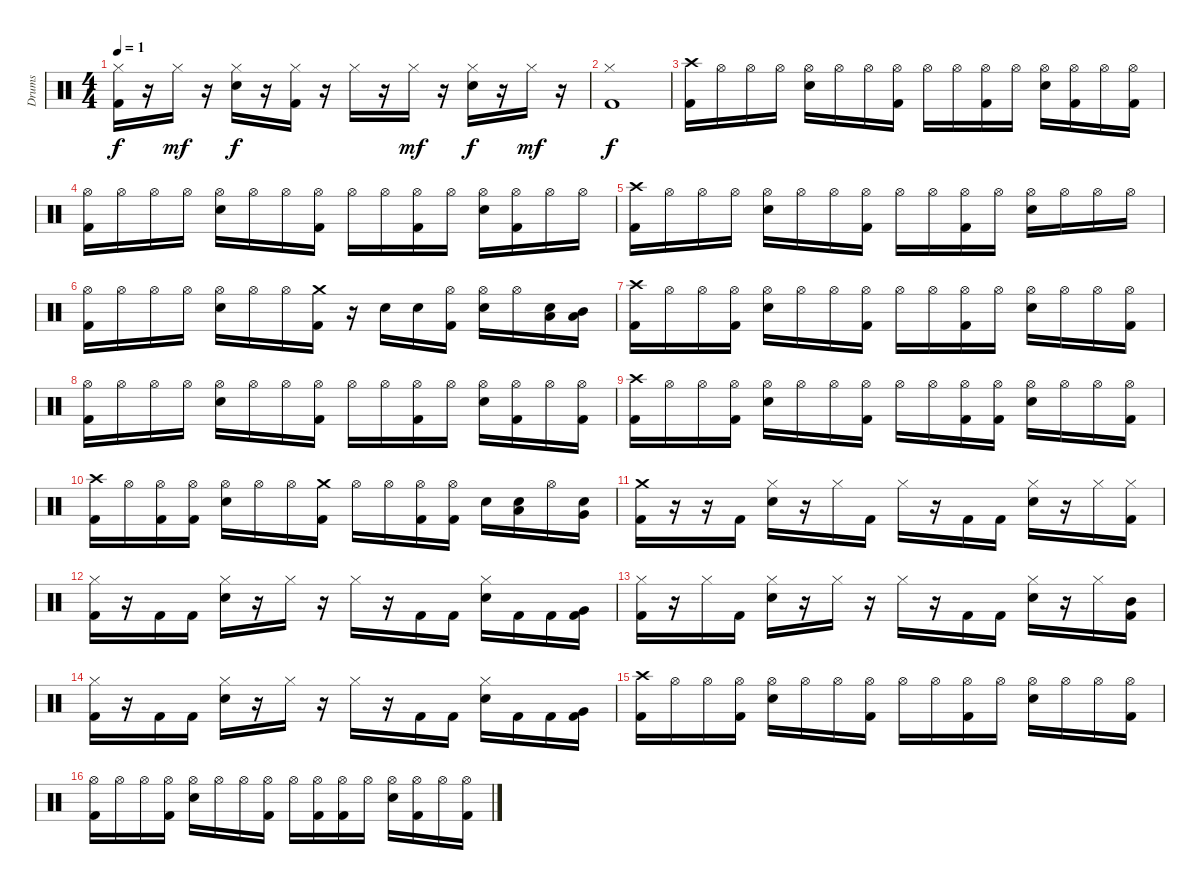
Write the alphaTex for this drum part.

\track ("Drums" "Drums") {instrument percussion}
\staff {score}
\articulation defaults
\ts (4 4)
\tempo 1
\clef neutral
\ks c
("Hi-Hat (closed)" "Kick (hit) 2").16{dy f} r.16 "Hi-Hat (closed)".16{dy mf} r.16 ("Hi-Hat (closed)" "Snare (hit) 2").16{dy f} r.16 ("Kick (hit) 2" "Hi-Hat (closed)").16 r.16 "Hi-Hat (closed)".16 r.16 "Hi-Hat (closed)".16{dy mf} r.16 ("Hi-Hat (closed)" "Snare (hit) 2").16{dy f} r.16 "Hi-Hat (closed)".16{dy mf} r.16 |
("Hi-Hat (closed)" "Kick (hit) 2").1{dy f} |
("Crash high (hit)" "Kick (hit) 2").16 "Hi-Hat (open)".16 "Hi-Hat (open)".16 "Hi-Hat (open)".16 ("Hi-Hat (open)" "Snare (hit) 2").16 "Hi-Hat (open)".16 "Hi-Hat (open)".16 ("Kick (hit) 2" "Hi-Hat (open)").16 "Hi-Hat (open)".16 "Hi-Hat (open)".16 ("Hi-Hat (open)" "Kick (hit) 2").16 "Hi-Hat (open)".16 ("Hi-Hat (open)" "Snare (hit) 2").16 ("Kick (hit) 2" "Hi-Hat (open)").16 "Hi-Hat (open)".16 ("Kick (hit) 2" "Hi-Hat (open)").16 |
("Hi-Hat (open)" "Kick (hit) 2").16 "Hi-Hat (open)".16 "Hi-Hat (open)".16 "Hi-Hat (open)".16 ("Hi-Hat (open)" "Snare (hit) 2").16 "Hi-Hat (open)".16 "Hi-Hat (open)".16 ("Kick (hit) 2" "Hi-Hat (open)").16 "Hi-Hat (open)".16 "Hi-Hat (open)".16 ("Hi-Hat (open)" "Kick (hit) 2").16 "Hi-Hat (open)".16 ("Hi-Hat (open)" "Snare (hit) 2").16 ("Hi-Hat (open)" "Kick (hit) 2").16 "Hi-Hat (open)".16 "Hi-Hat (open)".16 |
("Crash high (hit)" "Kick (hit) 2").16 "Hi-Hat (open)".16 "Hi-Hat (open)".16 "Hi-Hat (open)".16 ("Hi-Hat (open)" "Snare (hit) 2").16 "Hi-Hat (open)".16 "Hi-Hat (open)".16 ("Kick (hit) 2" "Hi-Hat (open)").16 "Hi-Hat (open)".16 "Hi-Hat (open)".16 ("Hi-Hat (open)" "Kick (hit) 2").16 "Hi-Hat (open)".16 ("Hi-Hat (open)" "Snare (hit) 2").16 "Hi-Hat (open)".16 "Hi-Hat (open)".16 "Hi-Hat (open)".16 |
("Hi-Hat (open)" "Kick (hit) 2").16 "Hi-Hat (open)".16 "Hi-Hat (open)".16 "Hi-Hat (open)".16 ("Hi-Hat (open)" "Snare (hit) 2").16 "Hi-Hat (open)".16 "Hi-Hat (open)".16 ("Kick (hit) 2" "Crash medium (hit)").16 r.16 "Snare (hit) 2".16 "Snare (hit) 2".16 ("Hi-Hat (open)" "Kick (hit) 2").16 ("Snare (hit) 2" "Hi-Hat (open)").16 "Hi-Hat (open)".16 ("Snare (hit) 2" "Low Tom (hit)").16 ("Low Floor Tom (hit)" "Mid Tom (hit)").16 |
("Crash high (hit)" "Kick (hit) 2").16 "Hi-Hat (open)".16 "Hi-Hat (open)".16 ("Hi-Hat (open)" "Kick (hit) 2").16 ("Hi-Hat (open)" "Snare (hit) 2").16 "Hi-Hat (open)".16 "Hi-Hat (open)".16 ("Kick (hit) 2" "Hi-Hat (open)").16 "Hi-Hat (open)".16 "Hi-Hat (open)".16 ("Hi-Hat (open)" "Kick (hit) 2").16 "Hi-Hat (open)".16 ("Hi-Hat (open)" "Snare (hit) 2").16 "Hi-Hat (open)".16 "Hi-Hat (open)".16 ("Hi-Hat (open)" "Kick (hit) 2").16 |
("Hi-Hat (open)" "Kick (hit) 2").16 "Hi-Hat (open)".16 "Hi-Hat (open)".16 "Hi-Hat (open)".16 ("Hi-Hat (open)" "Snare (hit) 2").16 "Hi-Hat (open)".16 "Hi-Hat (open)".16 ("Kick (hit) 2" "Hi-Hat (open)").16 "Hi-Hat (open)".16 "Hi-Hat (open)".16 ("Hi-Hat (open)" "Kick (hit) 2").16 "Hi-Hat (open)".16 ("Hi-Hat (open)" "Snare (hit) 2").16 ("Hi-Hat (open)" "Kick (hit) 2").16 "Hi-Hat (open)".16 ("Kick (hit) 2" "Hi-Hat (open)").16 |
("Crash high (hit)" "Kick (hit) 2").16 "Hi-Hat (open)".16 "Hi-Hat (open)".16 ("Hi-Hat (open)" "Kick (hit) 2").16 ("Hi-Hat (open)" "Snare (hit) 2").16 "Hi-Hat (open)".16 "Hi-Hat (open)".16 ("Kick (hit) 2" "Hi-Hat (open)").16 "Hi-Hat (open)".16 "Hi-Hat (open)".16 ("Hi-Hat (open)" "Kick (hit) 2").16 ("Hi-Hat (open)" "Kick (hit) 2").16 ("Hi-Hat (open)" "Snare (hit) 2").16 "Hi-Hat (open)".16 "Hi-Hat (open)".16 ("Hi-Hat (open)" "Kick (hit) 2").16 |
("Kick (hit) 2" "Crash high (hit)").16 "Hi-Hat (open)".16 ("Hi-Hat (open)" "Kick (hit) 2").16 ("Hi-Hat (open)" "Kick (hit) 2").16 ("Hi-Hat (open)" "Snare (hit) 2").16 "Hi-Hat (open)".16 "Hi-Hat (open)".16 ("Kick (hit) 2" "Crash medium (hit)").16 "Hi-Hat (open)".16 "Hi-Hat (open)".16 ("Hi-Hat (open)" "Kick (hit) 2").16 ("Hi-Hat (open)" "Kick (hit) 2").16 "Snare (hit) 2".16 ("Snare (hit) 2" "Low Tom (hit)").16 "Hi-Hat (open)".16 ("Snare (hit) 2" "Very Low Tom (hit)").16 |
("Kick (hit) 2" "Crash medium (hit)").16 r.16 r.16 "Kick (hit) 2".16 ("Hi-Hat (closed)" "Snare (hit) 2").16 r.16 "Hi-Hat (closed)".16 "Kick (hit) 2".16 "Hi-Hat (closed)".16 r.16 "Kick (hit) 2".16 "Kick (hit) 2".16 ("Hi-Hat (closed)" "Snare (hit) 2").16 r.16 "Hi-Hat (closed)".16 ("Kick (hit) 2" "Hi-Hat (closed)").16 |
("Hi-Hat (closed)" "Kick (hit) 2").16 r.16 "Kick (hit) 2".16 "Kick (hit) 2".16 ("Hi-Hat (closed)" "Snare (hit) 2").16 r.16 "Hi-Hat (closed)".16 r.16 "Hi-Hat (closed)".16 r.16 "Kick (hit) 2".16 "Kick (hit) 2".16 ("Hi-Hat (closed)" "Snare (hit) 2").16 "Kick (hit) 2".16 "Kick (hit) 2".16 ("Kick (hit) 2" "Very Low Tom (hit)").16 |
("Hi-Hat (closed)" "Kick (hit) 2").16 r.16 "Hi-Hat (closed)".16 "Kick (hit) 2".16 ("Hi-Hat (closed)" "Snare (hit) 2").16 r.16 "Hi-Hat (closed)".16 r.16 "Hi-Hat (closed)".16 r.16 "Kick (hit) 2".16 "Kick (hit) 2".16 ("Hi-Hat (closed)" "Snare (hit) 2").16 r.16 "Hi-Hat (closed)".16 ("Mid Tom (hit)" "Kick (hit) 2").16 |
("Hi-Hat (closed)" "Kick (hit) 2").16 r.16 "Kick (hit) 2".16 "Kick (hit) 2".16 ("Hi-Hat (closed)" "Snare (hit) 2").16 r.16 "Hi-Hat (closed)".16 r.16 "Hi-Hat (closed)".16 r.16 "Kick (hit) 2".16 "Kick (hit) 2".16 ("Hi-Hat (closed)" "Snare (hit) 2").16 "Kick (hit) 2".16 "Kick (hit) 2".16 ("Kick (hit) 2" "Very Low Tom (hit)").16 |
("Crash high (hit)" "Kick (hit) 2").16 "Hi-Hat (open)".16 "Hi-Hat (open)".16 ("Hi-Hat (open)" "Kick (hit) 2").16 ("Hi-Hat (open)" "Snare (hit) 2").16 "Hi-Hat (open)".16 "Hi-Hat (open)".16 ("Kick (hit) 2" "Hi-Hat (open)").16 "Hi-Hat (open)".16 "Hi-Hat (open)".16 ("Hi-Hat (open)" "Kick (hit) 2").16 "Hi-Hat (open)".16 ("Hi-Hat (open)" "Snare (hit) 2").16 "Hi-Hat (open)".16 "Hi-Hat (open)".16 ("Kick (hit) 2" "Hi-Hat (open)").16 |
("Hi-Hat (open)" "Kick (hit) 2").16 "Hi-Hat (open)".16 "Hi-Hat (open)".16 ("Hi-Hat (open)" "Kick (hit) 2").16 ("Hi-Hat (open)" "Snare (hit) 2").16 "Hi-Hat (open)".16 "Hi-Hat (open)".16 ("Kick (hit) 2" "Hi-Hat (open)").16 "Hi-Hat (open)".16 ("Hi-Hat (open)" "Kick (hit) 2").16 ("Hi-Hat (open)" "Kick (hit) 2").16 "Hi-Hat (open)".16 ("Hi-Hat (open)" "Snare (hit) 2").16 ("Hi-Hat (open)" "Kick (hit) 2").16 "Hi-Hat (open)".16 ("Kick (hit) 2" "Hi-Hat (open)").16
